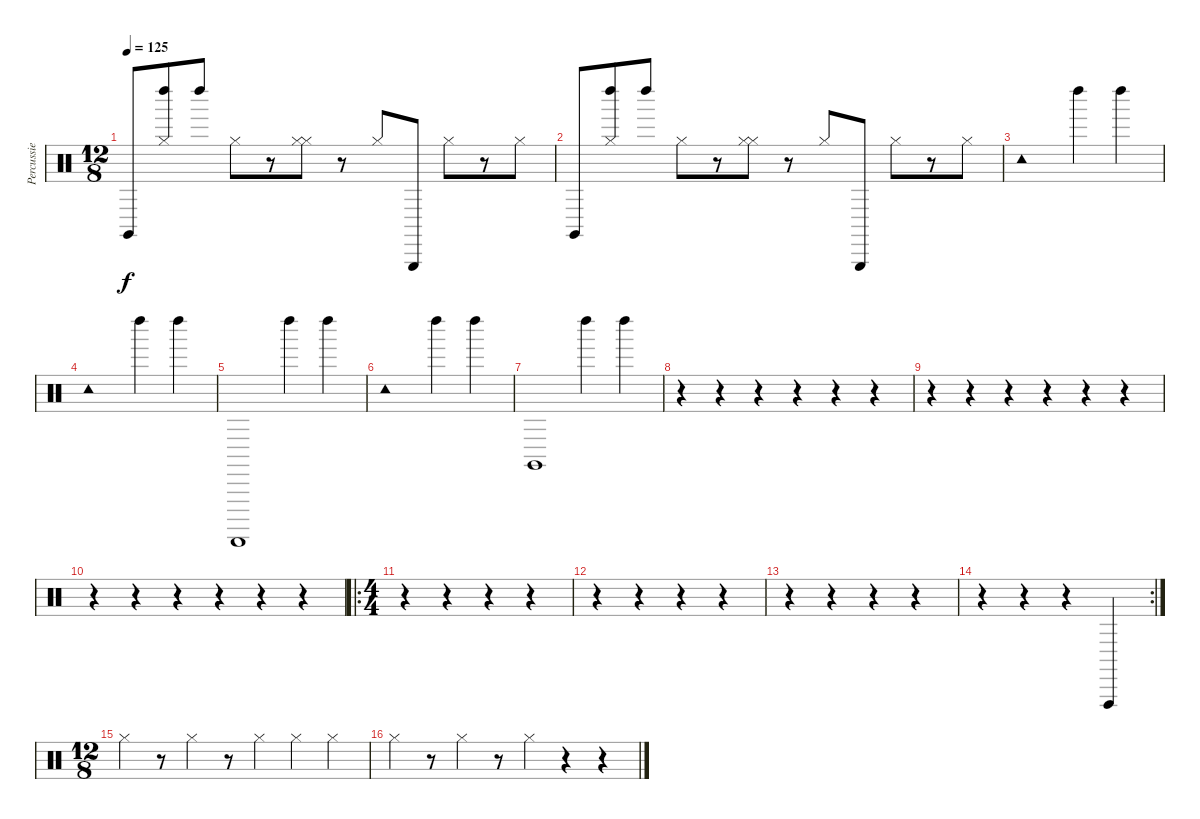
\track ("Percussie" "Percussie") {instrument percussion}
\staff {score}
\articulation defaults
\ts (12 8)
\tempo 125
\clef neutral
\ks c "Claves (hit)".8{dy f}
("Left Maraca (hit)" "Hi-Hat (closed)").8 "Left Maraca (hit)".8 "Hi-Hat (closed)".8 r.8 ("Hi-Hat (closed)" "Hi-Hat (closed)").8 r.8 "Hi-Hat (closed)".8 "Triangle (hit)".8 "Hi-Hat (closed)".8 r.8 "Hi-Hat (closed)".8 |
"Claves (hit)".8 ("Left Maraca (hit)" "Hi-Hat (closed)").8 "Left Maraca (hit)".8 "Hi-Hat (closed)".8 r.8 ("Hi-Hat (closed)" "Hi-Hat (closed)").8 r.8 "Hi-Hat (closed)".8 "Triangle (hit)".8 "Hi-Hat (closed)".8 r.8 "Hi-Hat (closed)".8 |
"Tambourine (hit)".1 "Left Maraca (hit)".4 "Left Maraca (hit)".4 |
"Tambourine (hit)".1 "Left Maraca (hit)".4 "Left Maraca (hit)".4 |
"Guiro (scrap-return)".1 "Left Maraca (hit)".4 "Left Maraca (hit)".4 |
"Tambourine (hit)".1 "Left Maraca (hit)".4 "Left Maraca (hit)".4 |
"Claves (hit)".1 "Left Maraca (hit)".4 "Left Maraca (hit)".4 |
r.4 r.4 r.4 r.4 r.4 r.4 |
r.4 r.4 r.4 r.4 r.4 r.4 |
r.4 r.4 r.4 r.4 r.4 r.4 |
\ro
\ts (4 4)
r.4 r.4 r.4 r.4 |
r.4 r.4 r.4 r.4 |
r.4 r.4 r.4 r.4 |
\rc 2
r.4 r.4 r.4 "Vibraslap (hit)".4 |
\ts (12 8)
"Hi-Hat (closed)".4 r.8 "Hi-Hat (closed)".4 r.8 "Hi-Hat (closed)".4 "Hi-Hat (closed)".4 "Hi-Hat (closed)".4 |
"Hi-Hat (closed)".4 r.8 "Hi-Hat (closed)".4 r.8 "Hi-Hat (closed)".4 r.4 r.4
